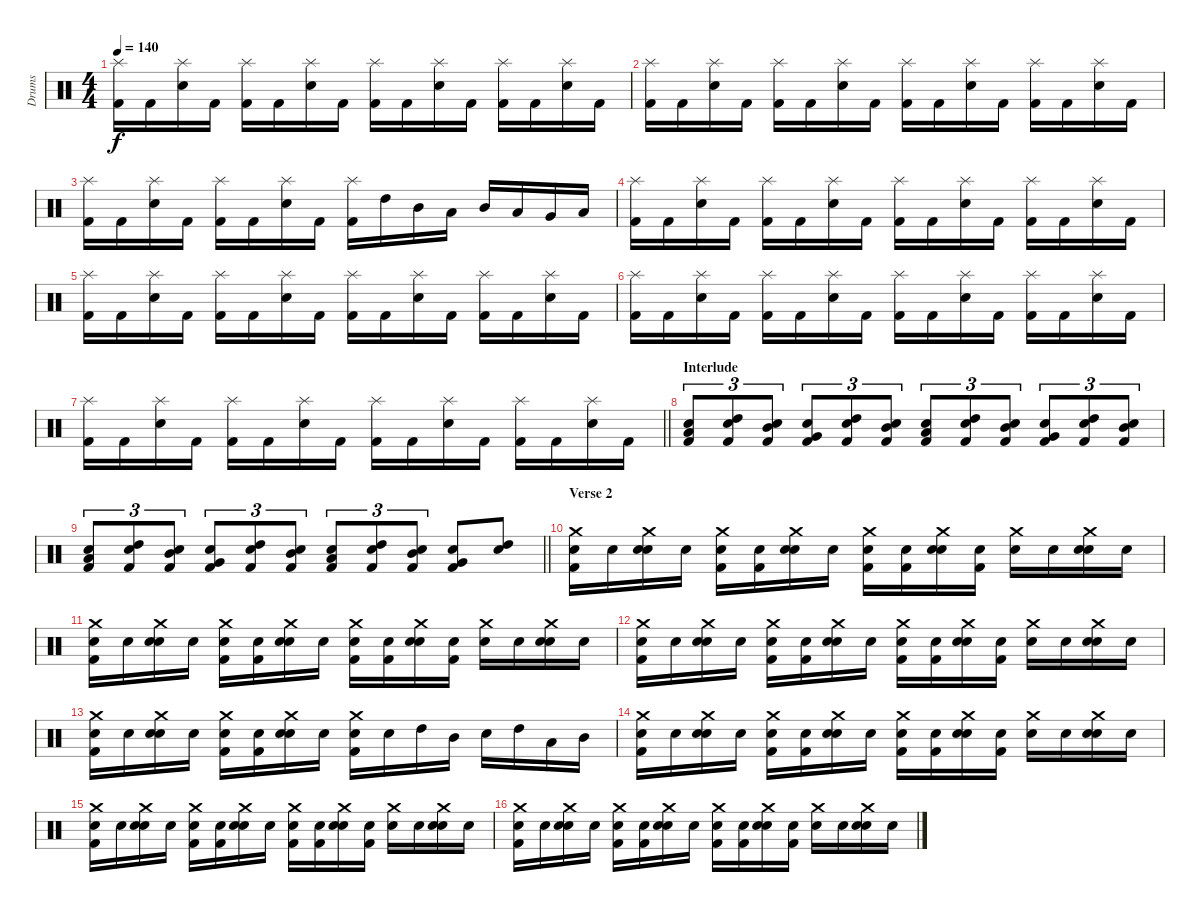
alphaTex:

\track ("Drums" "Drums") {instrument percussion}
\staff {score}
\articulation defaults
\ts (4 4)
\tempo 140
\clef neutral
\ks c
("Splash (hit)" "Kick (hit) 2").16{dy f} "Kick (hit) 2".16 ("Splash (hit)" "Electric Snare (hit)").16 "Kick (hit) 2".16 ("Splash (hit)" "Kick (hit) 2").16 "Kick (hit) 2".16 ("Splash (hit)" "Electric Snare (hit)").16 "Kick (hit) 2".16 ("Splash (hit)" "Kick (hit) 2").16 "Kick (hit) 2".16 ("Splash (hit)" "Electric Snare (hit)").16 "Kick (hit) 2".16 ("Splash (hit)" "Kick (hit) 2").16 "Kick (hit) 2".16 ("Splash (hit)" "Electric Snare (hit)").16 "Kick (hit) 2".16 |
("Splash (hit)" "Kick (hit) 2").16 "Kick (hit) 2".16 ("Splash (hit)" "Electric Snare (hit)").16 "Kick (hit) 2".16 ("Splash (hit)" "Kick (hit) 2").16 "Kick (hit) 2".16 ("Splash (hit)" "Electric Snare (hit)").16 "Kick (hit) 2".16 ("Splash (hit)" "Kick (hit) 2").16 "Kick (hit) 2".16 ("Splash (hit)" "Electric Snare (hit)").16 "Kick (hit) 2".16 ("Splash (hit)" "Kick (hit) 2").16 "Kick (hit) 2".16 ("Splash (hit)" "Electric Snare (hit)").16 "Kick (hit) 2".16 |
("Splash (hit)" "Kick (hit) 2").16 "Kick (hit) 2".16 ("Splash (hit)" "Electric Snare (hit)").16 "Kick (hit) 2".16 ("Splash (hit)" "Kick (hit) 2").16 "Kick (hit) 2".16 ("Splash (hit)" "Electric Snare (hit)").16 "Kick (hit) 2".16 ("Splash (hit)" "Kick (hit) 2").16 "High Tom (hit)".16 "Mid Tom (hit)".16 "Low Tom (hit)".16 "Mid Tom (hit)".16 "Low Tom (hit)".16 "Very Low Tom (hit)".16 "Low Tom (hit)".16 |
("Splash (hit)" "Kick (hit) 2").16 "Kick (hit) 2".16 ("Splash (hit)" "Electric Snare (hit)").16 "Kick (hit) 2".16 ("Splash (hit)" "Kick (hit) 2").16 "Kick (hit) 2".16 ("Splash (hit)" "Electric Snare (hit)").16 "Kick (hit) 2".16 ("Splash (hit)" "Kick (hit) 2").16 "Kick (hit) 2".16 ("Splash (hit)" "Electric Snare (hit)").16 "Kick (hit) 2".16 ("Splash (hit)" "Kick (hit) 2").16 "Kick (hit) 2".16 ("Splash (hit)" "Electric Snare (hit)").16 "Kick (hit) 2".16 |
("Splash (hit)" "Kick (hit) 2").16 "Kick (hit) 2".16 ("Splash (hit)" "Electric Snare (hit)").16 "Kick (hit) 2".16 ("Splash (hit)" "Kick (hit) 2").16 "Kick (hit) 2".16 ("Splash (hit)" "Electric Snare (hit)").16 "Kick (hit) 2".16 ("Splash (hit)" "Kick (hit) 2").16 "Kick (hit) 2".16 ("Splash (hit)" "Electric Snare (hit)").16 "Kick (hit) 2".16 ("Splash (hit)" "Kick (hit) 2").16 "Kick (hit) 2".16 ("Splash (hit)" "Electric Snare (hit)").16 "Kick (hit) 2".16 |
("Splash (hit)" "Kick (hit) 2").16 "Kick (hit) 2".16 ("Splash (hit)" "Electric Snare (hit)").16 "Kick (hit) 2".16 ("Splash (hit)" "Kick (hit) 2").16 "Kick (hit) 2".16 ("Splash (hit)" "Electric Snare (hit)").16 "Kick (hit) 2".16 ("Splash (hit)" "Kick (hit) 2").16 "Kick (hit) 2".16 ("Splash (hit)" "Electric Snare (hit)").16 "Kick (hit) 2".16 ("Splash (hit)" "Kick (hit) 2").16 "Kick (hit) 2".16 ("Splash (hit)" "Electric Snare (hit)").16 "Kick (hit) 2".16 |
\barLineRight lightlight
("Splash (hit)" "Kick (hit) 2").16 "Kick (hit) 2".16 ("Splash (hit)" "Electric Snare (hit)").16 "Kick (hit) 2".16 ("Splash (hit)" "Kick (hit) 2").16 "Kick (hit) 2".16 ("Splash (hit)" "Electric Snare (hit)").16 "Kick (hit) 2".16 ("Splash (hit)" "Kick (hit) 2").16 "Kick (hit) 2".16 ("Splash (hit)" "Electric Snare (hit)").16 "Kick (hit) 2".16 ("Splash (hit)" "Kick (hit) 2").16 "Kick (hit) 2".16 ("Splash (hit)" "Electric Snare (hit)").16 "Kick (hit) 2".16 |
\section ("" "Interlude")
("Snare (hit)" "Low Tom (hit)" "Kick (hit) 2").8{tu (3 2)} ("Snare (hit)" "High Tom (hit)" "Kick (hit) 2").8{tu (3 2)} ("Snare (hit)" "Mid Tom (hit)" "Kick (hit) 2").8{tu (3 2)} ("Snare (hit)" "Very Low Tom (hit)" "Kick (hit) 2").8{tu (3 2)} ("Snare (hit)" "High Tom (hit)" "Kick (hit) 2").8{tu (3 2)} ("Snare (hit)" "Mid Tom (hit)" "Kick (hit) 2").8{tu (3 2)} ("Snare (hit)" "Low Tom (hit)" "Kick (hit) 2").8{tu (3 2)} ("Snare (hit)" "High Tom (hit)" "Kick (hit) 2").8{tu (3 2)} ("Snare (hit)" "Mid Tom (hit)" "Kick (hit) 2").8{tu (3 2)} ("Snare (hit)" "Very Low Tom (hit)" "Kick (hit) 2").8{tu (3 2)} ("Snare (hit)" "High Tom (hit)" "Kick (hit) 2").8{tu (3 2)} ("Snare (hit)" "Mid Tom (hit)" "Kick (hit) 2").8{tu (3 2)} |
\barLineRight lightlight
("Snare (hit)" "Low Tom (hit)" "Kick (hit) 2").8{tu (3 2)} ("Snare (hit)" "High Tom (hit)" "Kick (hit) 2").8{tu (3 2)} ("Snare (hit)" "Mid Tom (hit)" "Kick (hit) 2").8{tu (3 2)} ("Snare (hit)" "Very Low Tom (hit)" "Kick (hit) 2").8{tu (3 2)} ("Snare (hit)" "High Tom (hit)" "Kick (hit) 2").8{tu (3 2)} ("Snare (hit)" "Mid Tom (hit)" "Kick (hit) 2").8{tu (3 2)} ("Snare (hit)" "Low Tom (hit)" "Kick (hit) 2").8{tu (3 2)} ("Snare (hit)" "High Tom (hit)" "Kick (hit) 2").8{tu (3 2)} ("Snare (hit)" "Mid Tom (hit)" "Kick (hit) 2").8{tu (3 2)} ("Snare (hit)" "Very Low Tom (hit)" "Kick (hit) 2").8 ("High Tom (hit)" "Electric Snare (hit)").8 |
\section ("" "Verse 2")
("Snare (hit)" "Crash medium (hit)" "Kick (hit) 2").16 "Snare (hit)".16 ("Snare (hit)" "Crash medium (hit)" "Electric Snare (hit)").16 "Snare (hit)".16 ("Snare (hit)" "Crash medium (hit)" "Kick (hit) 2").16 ("Snare (hit)" "Kick (hit) 2").16 ("Snare (hit)" "Crash medium (hit)" "Electric Snare (hit)").16 "Snare (hit)".16 ("Snare (hit)" "Crash medium (hit)" "Kick (hit) 2").16 ("Snare (hit)" "Kick (hit) 2").16 ("Snare (hit)" "Crash medium (hit)" "Electric Snare (hit)").16 ("Snare (hit)" "Kick (hit) 2").16 ("Snare (hit)" "Crash medium (hit)").16 "Snare (hit)".16 ("Snare (hit)" "Crash medium (hit)" "Electric Snare (hit)").16 "Snare (hit)".16 |
("Snare (hit)" "Crash medium (hit)" "Kick (hit) 2").16 "Snare (hit)".16 ("Snare (hit)" "Crash medium (hit)" "Electric Snare (hit)").16 "Snare (hit)".16 ("Snare (hit)" "Crash medium (hit)" "Kick (hit) 2").16 ("Snare (hit)" "Kick (hit) 2").16 ("Snare (hit)" "Crash medium (hit)" "Electric Snare (hit)").16 "Snare (hit)".16 ("Snare (hit)" "Crash medium (hit)" "Kick (hit) 2").16 ("Snare (hit)" "Kick (hit) 2").16 ("Snare (hit)" "Crash medium (hit)" "Electric Snare (hit)").16 ("Snare (hit)" "Kick (hit) 2").16 ("Snare (hit)" "Crash medium (hit)").16 "Snare (hit)".16 ("Snare (hit)" "Crash medium (hit)" "Electric Snare (hit)").16 "Snare (hit)".16 |
("Snare (hit)" "Crash medium (hit)" "Kick (hit) 2").16 "Snare (hit)".16 ("Snare (hit)" "Crash medium (hit)" "Electric Snare (hit)").16 "Snare (hit)".16 ("Snare (hit)" "Crash medium (hit)" "Kick (hit) 2").16 ("Snare (hit)" "Kick (hit) 2").16 ("Snare (hit)" "Crash medium (hit)" "Electric Snare (hit)").16 "Snare (hit)".16 ("Snare (hit)" "Crash medium (hit)" "Kick (hit) 2").16 ("Snare (hit)" "Kick (hit) 2").16 ("Snare (hit)" "Crash medium (hit)" "Electric Snare (hit)").16 ("Snare (hit)" "Kick (hit) 2").16 ("Snare (hit)" "Crash medium (hit)").16 "Snare (hit)".16 ("Snare (hit)" "Crash medium (hit)" "Electric Snare (hit)").16 "Snare (hit)".16 |
("Snare (hit)" "Crash medium (hit)" "Kick (hit) 2").16 "Snare (hit)".16 ("Snare (hit)" "Crash medium (hit)" "Electric Snare (hit)").16 "Snare (hit)".16 ("Snare (hit)" "Crash medium (hit)" "Kick (hit) 2").16 ("Snare (hit)" "Kick (hit) 2").16 ("Snare (hit)" "Crash medium (hit)" "Electric Snare (hit)").16 "Snare (hit)".16 ("Snare (hit)" "Crash medium (hit)" "Kick (hit) 2").16 "Electric Snare (hit)".16 "High Tom (hit)".16 "Mid Tom (hit)".16 "Electric Snare (hit)".16 "High Tom (hit)".16 "Low Tom (hit)".16 "Mid Tom (hit)".16 |
("Snare (hit)" "Crash medium (hit)" "Kick (hit) 2").16 "Snare (hit)".16 ("Snare (hit)" "Crash medium (hit)" "Electric Snare (hit)").16 "Snare (hit)".16 ("Snare (hit)" "Crash medium (hit)" "Kick (hit) 2").16 ("Snare (hit)" "Kick (hit) 2").16 ("Snare (hit)" "Crash medium (hit)" "Electric Snare (hit)").16 "Snare (hit)".16 ("Snare (hit)" "Crash medium (hit)" "Kick (hit) 2").16 ("Snare (hit)" "Kick (hit) 2").16 ("Snare (hit)" "Crash medium (hit)" "Electric Snare (hit)").16 ("Snare (hit)" "Kick (hit) 2").16 ("Snare (hit)" "Crash medium (hit)").16 "Snare (hit)".16 ("Snare (hit)" "Crash medium (hit)" "Electric Snare (hit)").16 "Snare (hit)".16 |
("Snare (hit)" "Crash medium (hit)" "Kick (hit) 2").16 "Snare (hit)".16 ("Snare (hit)" "Crash medium (hit)" "Electric Snare (hit)").16 "Snare (hit)".16 ("Snare (hit)" "Crash medium (hit)" "Kick (hit) 2").16 ("Snare (hit)" "Kick (hit) 2").16 ("Snare (hit)" "Crash medium (hit)" "Electric Snare (hit)").16 "Snare (hit)".16 ("Snare (hit)" "Crash medium (hit)" "Kick (hit) 2").16 ("Snare (hit)" "Kick (hit) 2").16 ("Snare (hit)" "Crash medium (hit)" "Electric Snare (hit)").16 ("Snare (hit)" "Kick (hit) 2").16 ("Snare (hit)" "Crash medium (hit)").16 "Snare (hit)".16 ("Snare (hit)" "Crash medium (hit)" "Electric Snare (hit)").16 "Snare (hit)".16 |
("Snare (hit)" "Crash medium (hit)" "Kick (hit) 2").16 "Snare (hit)".16 ("Snare (hit)" "Crash medium (hit)" "Electric Snare (hit)").16 "Snare (hit)".16 ("Snare (hit)" "Crash medium (hit)" "Kick (hit) 2").16 ("Snare (hit)" "Kick (hit) 2").16 ("Snare (hit)" "Crash medium (hit)" "Electric Snare (hit)").16 "Snare (hit)".16 ("Snare (hit)" "Crash medium (hit)" "Kick (hit) 2").16 ("Snare (hit)" "Kick (hit) 2").16 ("Snare (hit)" "Crash medium (hit)" "Electric Snare (hit)").16 ("Snare (hit)" "Kick (hit) 2").16 ("Snare (hit)" "Crash medium (hit)").16 "Snare (hit)".16 ("Snare (hit)" "Crash medium (hit)" "Electric Snare (hit)").16 "Snare (hit)".16
